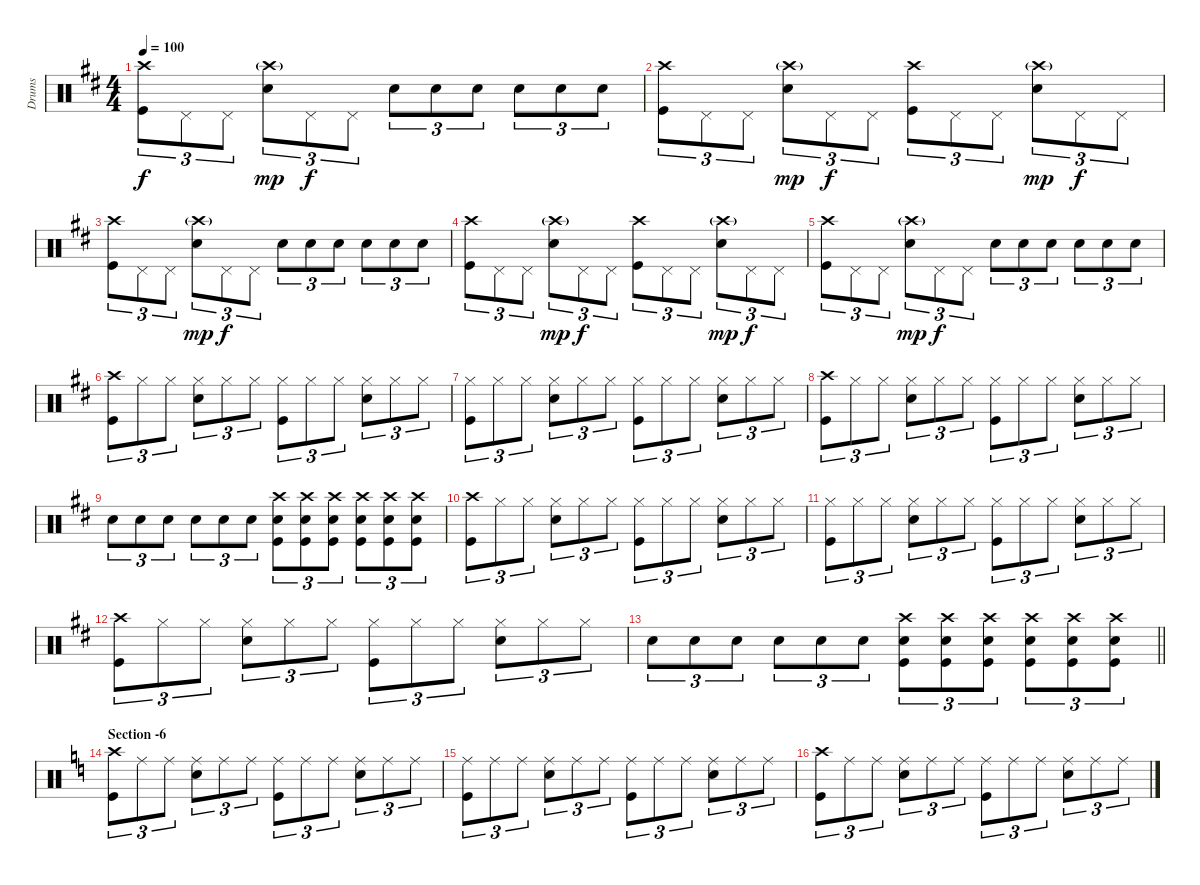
\track ("Drums" "Drums") {instrument percussion}
\staff {score}
\articulation defaults
\ts (4 4)
\tempo 100
\clef neutral
\ks d
("Crash high (hit)" "Kick (hit)").8{tu (3 2) dy f} "Pedal Hi-Hat (hit)".8{tu (3 2)} "Pedal Hi-Hat (hit)".8{tu (3 2)} ("Crash high (hit)"{g} "Snare (hit) 2").8{tu (3 2) dy mp} "Pedal Hi-Hat (hit)".8{tu (3 2) dy f} "Pedal Hi-Hat (hit)".8{tu (3 2)} "Snare (hit) 2".8{tu (3 2)} "Snare (hit) 2".8{tu (3 2)} "Snare (hit) 2".8{tu (3 2)} "Snare (hit) 2".8{tu (3 2)} "Snare (hit) 2".8{tu (3 2)} "Snare (hit) 2".8{tu (3 2)} |
("Crash high (hit)" "Kick (hit)").8{tu (3 2)} "Pedal Hi-Hat (hit)".8{tu (3 2)} "Pedal Hi-Hat (hit)".8{tu (3 2)} ("Crash high (hit)"{g} "Snare (hit) 2").8{tu (3 2) dy mp} "Pedal Hi-Hat (hit)".8{tu (3 2) dy f} "Pedal Hi-Hat (hit)".8{tu (3 2)} ("Crash high (hit)" "Kick (hit)").8{tu (3 2)} "Pedal Hi-Hat (hit)".8{tu (3 2)} "Pedal Hi-Hat (hit)".8{tu (3 2)} ("Crash high (hit)"{g} "Snare (hit) 2").8{tu (3 2) dy mp} "Pedal Hi-Hat (hit)".8{tu (3 2) dy f} "Pedal Hi-Hat (hit)".8{tu (3 2)} |
("Crash high (hit)" "Kick (hit)").8{tu (3 2)} "Pedal Hi-Hat (hit)".8{tu (3 2)} "Pedal Hi-Hat (hit)".8{tu (3 2)} ("Crash high (hit)"{g} "Snare (hit) 2").8{tu (3 2) dy mp} "Pedal Hi-Hat (hit)".8{tu (3 2) dy f} "Pedal Hi-Hat (hit)".8{tu (3 2)} "Snare (hit) 2".8{tu (3 2)} "Snare (hit) 2".8{tu (3 2)} "Snare (hit) 2".8{tu (3 2)} "Snare (hit) 2".8{tu (3 2)} "Snare (hit) 2".8{tu (3 2)} "Snare (hit) 2".8{tu (3 2)} |
("Crash high (hit)" "Kick (hit)").8{tu (3 2)} "Pedal Hi-Hat (hit)".8{tu (3 2)} "Pedal Hi-Hat (hit)".8{tu (3 2)} ("Crash high (hit)"{g} "Snare (hit) 2").8{tu (3 2) dy mp} "Pedal Hi-Hat (hit)".8{tu (3 2) dy f} "Pedal Hi-Hat (hit)".8{tu (3 2)} ("Crash high (hit)" "Kick (hit)").8{tu (3 2)} "Pedal Hi-Hat (hit)".8{tu (3 2)} "Pedal Hi-Hat (hit)".8{tu (3 2)} ("Crash high (hit)"{g} "Snare (hit) 2").8{tu (3 2) dy mp} "Pedal Hi-Hat (hit)".8{tu (3 2) dy f} "Pedal Hi-Hat (hit)".8{tu (3 2)} |
("Crash high (hit)" "Kick (hit)").8{tu (3 2)} "Pedal Hi-Hat (hit)".8{tu (3 2)} "Pedal Hi-Hat (hit)".8{tu (3 2)} ("Crash high (hit)"{g} "Snare (hit) 2").8{tu (3 2) dy mp} "Pedal Hi-Hat (hit)".8{tu (3 2) dy f} "Pedal Hi-Hat (hit)".8{tu (3 2)} "Snare (hit) 2".8{tu (3 2)} "Snare (hit) 2".8{tu (3 2)} "Snare (hit) 2".8{tu (3 2)} "Snare (hit) 2".8{tu (3 2)} "Snare (hit) 2".8{tu (3 2)} "Snare (hit) 2".8{tu (3 2)} |
("Crash high (hit)" "Kick (hit)").8{tu (3 2)} "Hi-Hat (closed)".8{tu (3 2)} "Hi-Hat (closed)".8{tu (3 2)} ("Hi-Hat (closed)" "Snare (hit) 2").8{tu (3 2)} "Hi-Hat (closed)".8{tu (3 2)} "Hi-Hat (closed)".8{tu (3 2)} ("Hi-Hat (closed)" "Kick (hit)").8{tu (3 2)} "Hi-Hat (closed)".8{tu (3 2)} "Hi-Hat (closed)".8{tu (3 2)} ("Hi-Hat (closed)" "Snare (hit) 2").8{tu (3 2)} "Hi-Hat (closed)".8{tu (3 2)} "Hi-Hat (closed)".8{tu (3 2)} |
("Hi-Hat (closed)" "Kick (hit)").8{tu (3 2)} "Hi-Hat (closed)".8{tu (3 2)} "Hi-Hat (closed)".8{tu (3 2)} ("Hi-Hat (closed)" "Snare (hit) 2").8{tu (3 2)} "Hi-Hat (closed)".8{tu (3 2)} "Hi-Hat (closed)".8{tu (3 2)} ("Hi-Hat (closed)" "Kick (hit)").8{tu (3 2)} "Hi-Hat (closed)".8{tu (3 2)} "Hi-Hat (closed)".8{tu (3 2)} ("Hi-Hat (closed)" "Snare (hit) 2").8{tu (3 2)} "Hi-Hat (closed)".8{tu (3 2)} "Hi-Hat (closed)".8{tu (3 2)} |
("Crash high (hit)" "Kick (hit)").8{tu (3 2)} "Hi-Hat (closed)".8{tu (3 2)} "Hi-Hat (closed)".8{tu (3 2)} ("Hi-Hat (closed)" "Snare (hit) 2").8{tu (3 2)} "Hi-Hat (closed)".8{tu (3 2)} "Hi-Hat (closed)".8{tu (3 2)} ("Hi-Hat (closed)" "Kick (hit)").8{tu (3 2)} "Hi-Hat (closed)".8{tu (3 2)} "Hi-Hat (closed)".8{tu (3 2)} ("Hi-Hat (closed)" "Snare (hit) 2").8{tu (3 2)} "Hi-Hat (closed)".8{tu (3 2)} "Hi-Hat (closed)".8{tu (3 2)} |
"Snare (hit) 2".8{tu (3 2)} "Snare (hit) 2".8{tu (3 2)} "Snare (hit) 2".8{tu (3 2)} "Snare (hit) 2".8{tu (3 2)} "Snare (hit) 2".8{tu (3 2)} "Snare (hit) 2".8{tu (3 2)} ("Crash high (hit)" "Snare (hit) 2" "Kick (hit)").8{tu (3 2)} ("Crash high (hit)" "Snare (hit) 2" "Kick (hit)").8{tu (3 2)} ("Crash high (hit)" "Snare (hit) 2" "Kick (hit)").8{tu (3 2)} ("Crash high (hit)" "Snare (hit) 2" "Kick (hit)").8{tu (3 2)} ("Crash high (hit)" "Snare (hit) 2" "Kick (hit)").8{tu (3 2)} ("Crash high (hit)" "Snare (hit) 2" "Kick (hit)").8{tu (3 2)} |
("Crash high (hit)" "Kick (hit)").8{tu (3 2)} "Hi-Hat (closed)".8{tu (3 2)} "Hi-Hat (closed)".8{tu (3 2)} ("Hi-Hat (closed)" "Snare (hit) 2").8{tu (3 2)} "Hi-Hat (closed)".8{tu (3 2)} "Hi-Hat (closed)".8{tu (3 2)} ("Hi-Hat (closed)" "Kick (hit)").8{tu (3 2)} "Hi-Hat (closed)".8{tu (3 2)} "Hi-Hat (closed)".8{tu (3 2)} ("Hi-Hat (closed)" "Snare (hit) 2").8{tu (3 2)} "Hi-Hat (closed)".8{tu (3 2)} "Hi-Hat (closed)".8{tu (3 2)} |
("Hi-Hat (closed)" "Kick (hit)").8{tu (3 2)} "Hi-Hat (closed)".8{tu (3 2)} "Hi-Hat (closed)".8{tu (3 2)} ("Hi-Hat (closed)" "Snare (hit) 2").8{tu (3 2)} "Hi-Hat (closed)".8{tu (3 2)} "Hi-Hat (closed)".8{tu (3 2)} ("Hi-Hat (closed)" "Kick (hit)").8{tu (3 2)} "Hi-Hat (closed)".8{tu (3 2)} "Hi-Hat (closed)".8{tu (3 2)} ("Hi-Hat (closed)" "Snare (hit) 2").8{tu (3 2)} "Hi-Hat (closed)".8{tu (3 2)} "Hi-Hat (closed)".8{tu (3 2)} |
("Crash high (hit)" "Kick (hit)").8{tu (3 2)} "Hi-Hat (closed)".8{tu (3 2)} "Hi-Hat (closed)".8{tu (3 2)} ("Hi-Hat (closed)" "Snare (hit) 2").8{tu (3 2)} "Hi-Hat (closed)".8{tu (3 2)} "Hi-Hat (closed)".8{tu (3 2)} ("Hi-Hat (closed)" "Kick (hit)").8{tu (3 2)} "Hi-Hat (closed)".8{tu (3 2)} "Hi-Hat (closed)".8{tu (3 2)} ("Hi-Hat (closed)" "Snare (hit) 2").8{tu (3 2)} "Hi-Hat (closed)".8{tu (3 2)} "Hi-Hat (closed)".8{tu (3 2)} |
\barLineRight lightlight "Snare (hit) 2".8{tu (3 2)} "Snare (hit) 2".8{tu (3 2)} "Snare (hit) 2".8{tu (3 2)} "Snare (hit) 2".8{tu (3 2)} "Snare (hit) 2".8{tu (3 2)} "Snare (hit) 2".8{tu (3 2)}
("Crash high (hit)" "Snare (hit) 2" "Kick (hit)").8{tu (3 2)} ("Crash high (hit)" "Snare (hit) 2" "Kick (hit)").8{tu (3 2)} ("Crash high (hit)" "Snare (hit) 2" "Kick (hit)").8{tu (3 2)} ("Crash high (hit)" "Snare (hit) 2" "Kick (hit)").8{tu (3 2)} ("Crash high (hit)" "Snare (hit) 2" "Kick (hit)").8{tu (3 2)} ("Crash high (hit)" "Snare (hit) 2" "Kick (hit)").8{tu (3 2)} |
\section ("" "Section -6")
\ks c
("Crash high (hit)" "Kick (hit)").8{tu (3 2)} "Ride (middle)".8{tu (3 2)} "Ride (middle)".8{tu (3 2)} ("Ride (middle)" "Snare (hit) 2").8{tu (3 2)} "Ride (middle)".8{tu (3 2)} "Ride (middle)".8{tu (3 2)} ("Ride (middle)" "Kick (hit)").8{tu (3 2)} "Ride (middle)".8{tu (3 2)} "Ride (middle)".8{tu (3 2)} ("Ride (middle)" "Snare (hit) 2").8{tu (3 2)} "Ride (middle)".8{tu (3 2)} "Ride (middle)".8{tu (3 2)} |
("Ride (middle)" "Kick (hit)").8{tu (3 2)} "Ride (middle)".8{tu (3 2)} "Ride (middle)".8{tu (3 2)} ("Ride (middle)" "Snare (hit) 2").8{tu (3 2)} "Ride (middle)".8{tu (3 2)} "Ride (middle)".8{tu (3 2)} ("Ride (middle)" "Kick (hit)").8{tu (3 2)} "Ride (middle)".8{tu (3 2)} "Ride (middle)".8{tu (3 2)} ("Ride (middle)" "Snare (hit) 2").8{tu (3 2)} "Ride (middle)".8{tu (3 2)} "Ride (middle)".8{tu (3 2)} |
("Crash high (hit)" "Kick (hit)").8{tu (3 2)} "Ride (middle)".8{tu (3 2)} "Ride (middle)".8{tu (3 2)} ("Ride (middle)" "Snare (hit) 2").8{tu (3 2)} "Ride (middle)".8{tu (3 2)} "Ride (middle)".8{tu (3 2)} ("Ride (middle)" "Kick (hit)").8{tu (3 2)} "Ride (middle)".8{tu (3 2)} "Ride (middle)".8{tu (3 2)} ("Ride (middle)" "Snare (hit) 2").8{tu (3 2)} "Ride (middle)".8{tu (3 2)} "Ride (middle)".8{tu (3 2)}
